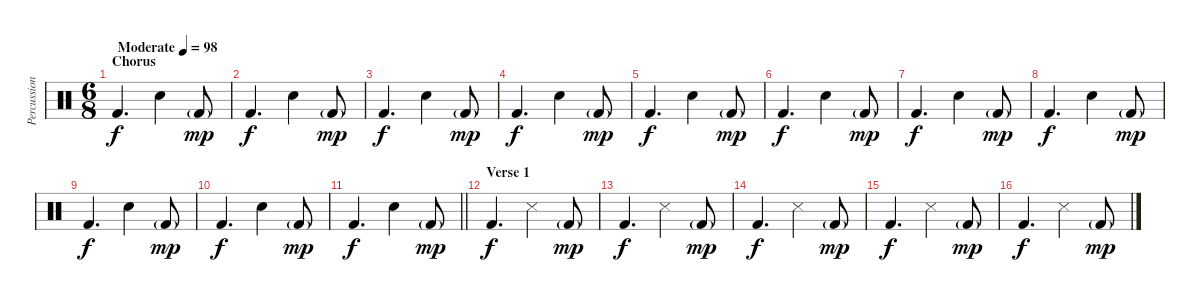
\track ("Percussion" "Percussion") {instrument percussion}
\staff {score}
\articulation defaults
\ts (6 8)
\section ("" "Chorus")
\tempo (98 "Moderate")
\clef neutral
\ks c "Kick (hit) 2".4{d dy f} "Snare (hit) 2".4 "Kick (hit) 2"{g}.8{dy mp}
|
"Kick (hit) 2".4{d dy f} "Snare (hit) 2".4 "Kick (hit) 2"{g}.8{dy mp} |
"Kick (hit) 2".4{d dy f} "Snare (hit) 2".4 "Kick (hit) 2"{g}.8{dy mp} |
"Kick (hit) 2".4{d dy f} "Snare (hit) 2".4 "Kick (hit) 2"{g}.8{dy mp} |
"Kick (hit) 2".4{d dy f} "Snare (hit) 2".4 "Kick (hit) 2"{g}.8{dy mp} |
"Kick (hit) 2".4{d dy f} "Snare (hit) 2".4 "Kick (hit) 2"{g}.8{dy mp} |
"Kick (hit) 2".4{d dy f} "Snare (hit) 2".4 "Kick (hit) 2"{g}.8{dy mp} |
"Kick (hit) 2".4{d dy f} "Snare (hit) 2".4 "Kick (hit) 2"{g}.8{dy mp} |
"Kick (hit) 2".4{d dy f} "Snare (hit) 2".4 "Kick (hit) 2"{g}.8{dy mp} |
"Kick (hit) 2".4{d dy f} "Snare (hit) 2".4 "Kick (hit) 2"{g}.8{dy mp} |
\barLineRight lightlight "Kick (hit) 2".4{d dy f} "Snare (hit) 2".4 "Kick (hit) 2"{g}.8{dy mp}
|
\section ("" "Verse 1")
"Kick (hit) 2".4{d dy f} "Snare (side stick) 3".4 "Kick (hit) 2"{g}.8{dy mp} |
"Kick (hit) 2".4{d dy f} "Snare (side stick) 3".4 "Kick (hit) 2"{g}.8{dy mp} |
"Kick (hit) 2".4{d dy f} "Snare (side stick) 3".4 "Kick (hit) 2"{g}.8{dy mp} |
"Kick (hit) 2".4{d dy f} "Snare (side stick) 3".4 "Kick (hit) 2"{g}.8{dy mp} |
"Kick (hit) 2".4{d dy f} "Snare (side stick) 3".4 "Kick (hit) 2"{g}.8{dy mp}
